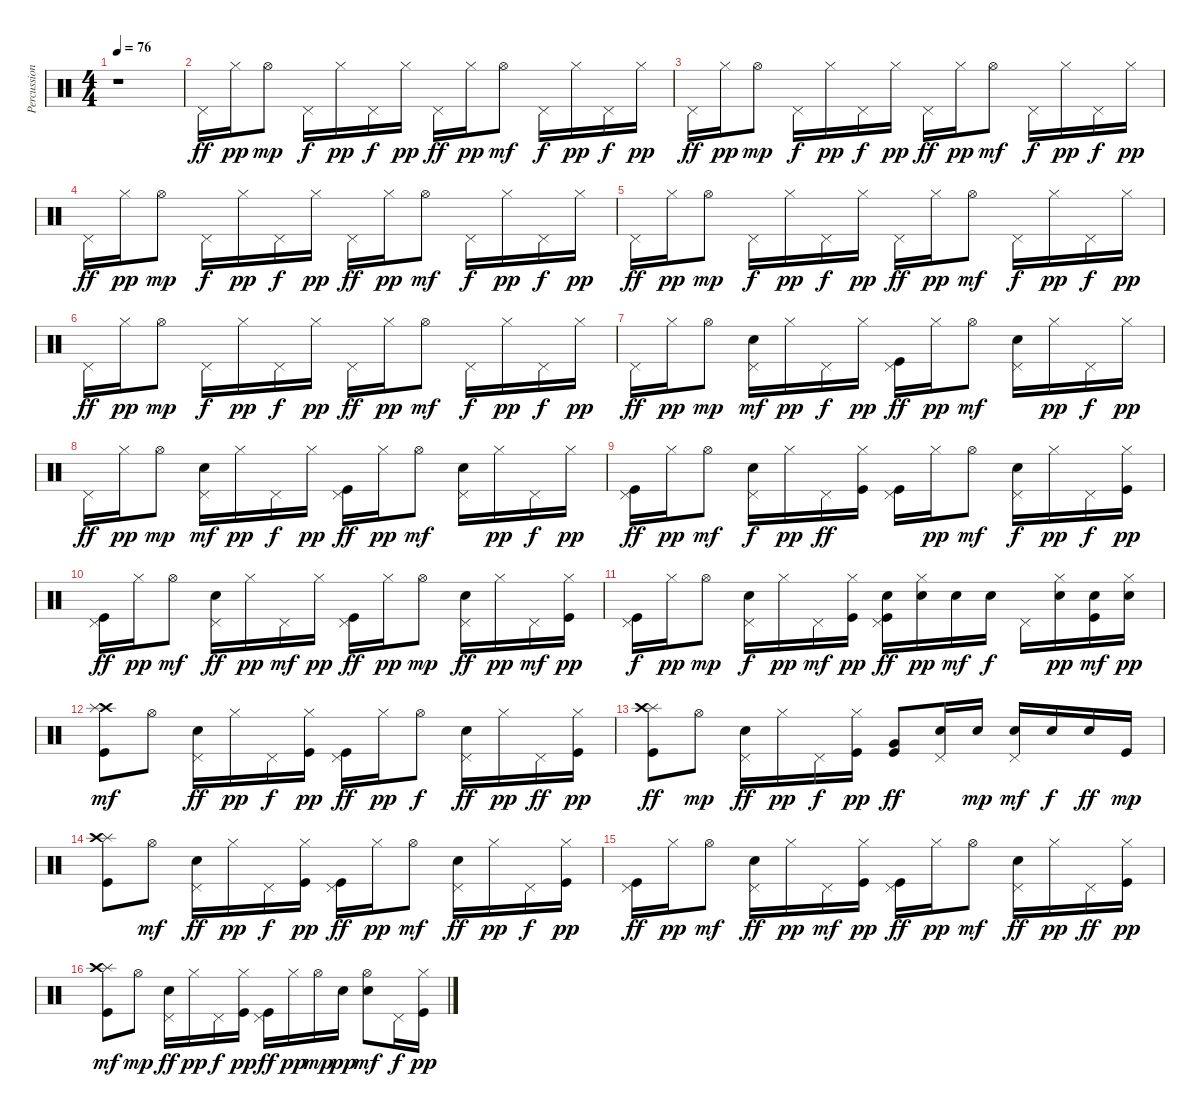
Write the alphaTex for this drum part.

\track ("Percussion" "Percussion") {instrument percussion}
\staff {score}
\articulation defaults
\ts (4 4)
\tempo 76
\clef neutral
\ks c
r.1{dy ff} |
"Pedal Hi-Hat (hit)".16 "Hi-Hat (closed)".16{dy pp} "Hi-Hat (open)".8{dy mp} "Pedal Hi-Hat (hit)".16{dy f} "Hi-Hat (closed)".16{dy pp} "Pedal Hi-Hat (hit)".16{dy f} "Hi-Hat (closed)".16{dy pp} "Pedal Hi-Hat (hit)".16{dy ff} "Hi-Hat (closed)".16{dy pp} "Hi-Hat (open)".8{dy mf} "Pedal Hi-Hat (hit)".16{dy f} "Hi-Hat (closed)".16{dy pp} "Pedal Hi-Hat (hit)".16{dy f} "Hi-Hat (closed)".16{dy pp} |
"Pedal Hi-Hat (hit)".16{dy ff} "Hi-Hat (closed)".16{dy pp} "Hi-Hat (open)".8{dy mp} "Pedal Hi-Hat (hit)".16{dy f} "Hi-Hat (closed)".16{dy pp} "Pedal Hi-Hat (hit)".16{dy f} "Hi-Hat (closed)".16{dy pp} "Pedal Hi-Hat (hit)".16{dy ff} "Hi-Hat (closed)".16{dy pp} "Hi-Hat (open)".8{dy mf} "Pedal Hi-Hat (hit)".16{dy f} "Hi-Hat (closed)".16{dy pp} "Pedal Hi-Hat (hit)".16{dy f} "Hi-Hat (closed)".16{dy pp} |
"Pedal Hi-Hat (hit)".16{dy ff} "Hi-Hat (closed)".16{dy pp} "Hi-Hat (open)".8{dy mp} "Pedal Hi-Hat (hit)".16{dy f} "Hi-Hat (closed)".16{dy pp} "Pedal Hi-Hat (hit)".16{dy f} "Hi-Hat (closed)".16{dy pp} "Pedal Hi-Hat (hit)".16{dy ff} "Hi-Hat (closed)".16{dy pp} "Hi-Hat (open)".8{dy mf} "Pedal Hi-Hat (hit)".16{dy f} "Hi-Hat (closed)".16{dy pp} "Pedal Hi-Hat (hit)".16{dy f} "Hi-Hat (closed)".16{dy pp} |
"Pedal Hi-Hat (hit)".16{dy ff} "Hi-Hat (closed)".16{dy pp} "Hi-Hat (open)".8{dy mp} "Pedal Hi-Hat (hit)".16{dy f} "Hi-Hat (closed)".16{dy pp} "Pedal Hi-Hat (hit)".16{dy f} "Hi-Hat (closed)".16{dy pp} "Pedal Hi-Hat (hit)".16{dy ff} "Hi-Hat (closed)".16{dy pp} "Hi-Hat (open)".8{dy mf} "Pedal Hi-Hat (hit)".16{dy f} "Hi-Hat (closed)".16{dy pp} "Pedal Hi-Hat (hit)".16{dy f} "Hi-Hat (closed)".16{dy pp} |
"Pedal Hi-Hat (hit)".16{dy ff} "Hi-Hat (closed)".16{dy pp} "Hi-Hat (open)".8{dy mp} "Pedal Hi-Hat (hit)".16{dy f} "Hi-Hat (closed)".16{dy pp} "Pedal Hi-Hat (hit)".16{dy f} "Hi-Hat (closed)".16{dy pp} "Pedal Hi-Hat (hit)".16{dy ff} "Hi-Hat (closed)".16{dy pp} "Hi-Hat (open)".8{dy mf} "Pedal Hi-Hat (hit)".16{dy f} "Hi-Hat (closed)".16{dy pp} "Pedal Hi-Hat (hit)".16{dy f} "Hi-Hat (closed)".16{dy pp} |
"Pedal Hi-Hat (hit)".16{dy ff} "Hi-Hat (closed)".16{dy pp} "Hi-Hat (open)".8{dy mp} ("Pedal Hi-Hat (hit)" "Snare (hit) 2").16{dy mf} "Hi-Hat (closed)".16{dy pp} "Pedal Hi-Hat (hit)".16{dy f} "Hi-Hat (closed)".16{dy pp} ("Pedal Hi-Hat (hit)" "Kick (hit)").16{dy ff} "Hi-Hat (closed)".16{dy pp} "Hi-Hat (open)".8{dy mf} ("Pedal Hi-Hat (hit)" "Snare (hit) 2").16 "Hi-Hat (closed)".16{dy pp} "Pedal Hi-Hat (hit)".16{dy f} "Hi-Hat (closed)".16{dy pp} |
"Pedal Hi-Hat (hit)".16{dy ff} "Hi-Hat (closed)".16{dy pp} "Hi-Hat (open)".8{dy mp} ("Pedal Hi-Hat (hit)" "Snare (hit) 2").16{dy mf} "Hi-Hat (closed)".16{dy pp} "Pedal Hi-Hat (hit)".16{dy f} "Hi-Hat (closed)".16{dy pp} ("Pedal Hi-Hat (hit)" "Kick (hit)").16{dy ff} "Hi-Hat (closed)".16{dy pp} "Hi-Hat (open)".8{dy mf} ("Pedal Hi-Hat (hit)" "Snare (hit) 2").16 "Hi-Hat (closed)".16{dy pp} "Pedal Hi-Hat (hit)".16{dy f} "Hi-Hat (closed)".16{dy pp} |
("Pedal Hi-Hat (hit)" "Kick (hit)").16{dy ff} "Hi-Hat (closed)".16{dy pp} "Hi-Hat (open)".8{dy mf} ("Pedal Hi-Hat (hit)" "Snare (hit) 2").16{dy f} "Hi-Hat (closed)".16{dy pp} "Pedal Hi-Hat (hit)".16{dy ff} ("Hi-Hat (closed)" "Kick (hit)").16 ("Pedal Hi-Hat (hit)" "Kick (hit)").16 "Hi-Hat (closed)".16{dy pp} "Hi-Hat (open)".8{dy mf} ("Pedal Hi-Hat (hit)" "Snare (hit) 2").16{dy f} "Hi-Hat (closed)".16{dy pp} "Pedal Hi-Hat (hit)".16{dy f} ("Hi-Hat (closed)" "Kick (hit)").16{dy pp} |
("Pedal Hi-Hat (hit)" "Kick (hit)").16{dy ff} "Hi-Hat (closed)".16{dy pp} "Hi-Hat (open)".8{dy mf} ("Pedal Hi-Hat (hit)" "Snare (hit) 2").16{dy ff} "Hi-Hat (closed)".16{dy pp} "Pedal Hi-Hat (hit)".16{dy mf} "Hi-Hat (closed)".16{dy pp} ("Pedal Hi-Hat (hit)" "Kick (hit)").16{dy ff} "Hi-Hat (closed)".16{dy pp} "Hi-Hat (open)".8{dy mp} ("Pedal Hi-Hat (hit)" "Snare (hit) 2").16{dy ff} "Hi-Hat (closed)".16{dy pp} "Pedal Hi-Hat (hit)".16{dy mf} ("Hi-Hat (closed)" "Kick (hit)").16{dy pp} |
("Pedal Hi-Hat (hit)" "Kick (hit)").16{dy f} "Hi-Hat (closed)".16{dy pp} "Hi-Hat (open)".8{dy mp} ("Pedal Hi-Hat (hit)" "Snare (hit) 2").16{dy f} "Hi-Hat (closed)".16{dy pp} "Pedal Hi-Hat (hit)".16{dy mf} ("Hi-Hat (closed)" "Kick (hit)").16{dy pp} ("Pedal Hi-Hat (hit)" "Snare (hit) 2" "Kick (hit)").16{dy ff} ("Hi-Hat (closed)" "Snare (hit) 2").16{dy pp} "Snare (hit) 2".16{dy mf} "Snare (hit) 2".16{dy f} "Pedal Hi-Hat (hit)".16 ("Hi-Hat (closed)" "Snare (hit) 2").16{dy pp} ("Kick (hit)" "Snare (hit) 2").16{dy mf} ("Hi-Hat (closed)" "Snare (hit) 2").16{dy pp} |
("Kick (hit)" "Crash high (hit)" "Splash (hit)").8{dy mf} "Hi-Hat (open)".8 ("Snare (hit) 2" "Pedal Hi-Hat (hit)").16{dy ff} "Hi-Hat (closed)".16{dy pp} "Pedal Hi-Hat (hit)".16{dy f} ("Hi-Hat (closed)" "Kick (hit)").16{dy pp} ("Pedal Hi-Hat (hit)" "Kick (hit)").16{dy ff} "Hi-Hat (closed)".16{dy pp} "Hi-Hat (open)".8{dy f} ("Snare (hit) 2" "Pedal Hi-Hat (hit)").16{dy ff} "Hi-Hat (closed)".16{dy pp} "Pedal Hi-Hat (hit)".16{dy ff} ("Kick (hit)" "Hi-Hat (closed)").16{dy pp} |
("Splash (hit)" "Crash high (hit)" "Kick (hit)").8{dy ff} "Hi-Hat (open)".8{dy mp} ("Pedal Hi-Hat (hit)" "Snare (hit) 2").16{dy ff} "Hi-Hat (closed)".16{dy pp} "Pedal Hi-Hat (hit)".16{dy f} ("Hi-Hat (closed)" "Kick (hit)").16{dy pp} ("Very Low Tom (hit)" "Kick (hit)").8{dy ff} ("Pedal Hi-Hat (hit)" "Snare (hit) 2").16 "Snare (hit) 2".16{dy mp} ("Pedal Hi-Hat (hit)" "Snare (hit) 2").16{dy mf} "Snare (hit) 2".16{dy f} "Snare (hit) 2".16{dy ff} "Kick (hit)".16{dy mp} |
("Splash (hit)" "Crash high (hit)" "Kick (hit)").8 "Hi-Hat (open)".8{dy mf} ("Pedal Hi-Hat (hit)" "Snare (hit) 2").16{dy ff} "Hi-Hat (closed)".16{dy pp} "Pedal Hi-Hat (hit)".16{dy f} ("Hi-Hat (closed)" "Kick (hit)").16{dy pp} ("Pedal Hi-Hat (hit)" "Kick (hit)").16{dy ff} "Hi-Hat (closed)".16{dy pp} "Hi-Hat (open)".8{dy mf} ("Pedal Hi-Hat (hit)" "Snare (hit) 2").16{dy ff} "Hi-Hat (closed)".16{dy pp} "Pedal Hi-Hat (hit)".16{dy f} ("Hi-Hat (closed)" "Kick (hit)").16{dy pp} |
("Pedal Hi-Hat (hit)" "Kick (hit)").16{dy ff} "Hi-Hat (closed)".16{dy pp} "Hi-Hat (open)".8{dy mf} ("Pedal Hi-Hat (hit)" "Snare (hit) 2").16{dy ff} "Hi-Hat (closed)".16{dy pp} "Pedal Hi-Hat (hit)".16{dy mf} ("Hi-Hat (closed)" "Kick (hit)").16{dy pp} ("Pedal Hi-Hat (hit)" "Kick (hit)").16{dy ff} "Hi-Hat (closed)".16{dy pp} "Hi-Hat (open)".8{dy mf} ("Pedal Hi-Hat (hit)" "Snare (hit) 2").16{dy ff} "Hi-Hat (closed)".16{dy pp} "Pedal Hi-Hat (hit)".16{dy ff} ("Hi-Hat (closed)" "Kick (hit)").16{dy pp} |
("Splash (hit)" "Crash high (hit)" "Kick (hit)").8{dy mf} "Hi-Hat (open)".8{dy mp} ("Pedal Hi-Hat (hit)" "Snare (hit) 2").16{dy ff} "Hi-Hat (closed)".16{dy pp} "Pedal Hi-Hat (hit)".16{dy f} ("Hi-Hat (closed)" "Kick (hit)").16{dy pp} ("Pedal Hi-Hat (hit)" "Kick (hit)").16{dy ff} "Hi-Hat (closed)".16{dy pp} "Hi-Hat (open)".16{dy mp} "Snare (hit) 2".16{dy pp} ("Hi-Hat (open)" "Snare (hit) 2").8{dy mf} "Pedal Hi-Hat (hit)".16{dy f} ("Hi-Hat (closed)" "Kick (hit)").16{dy pp}
